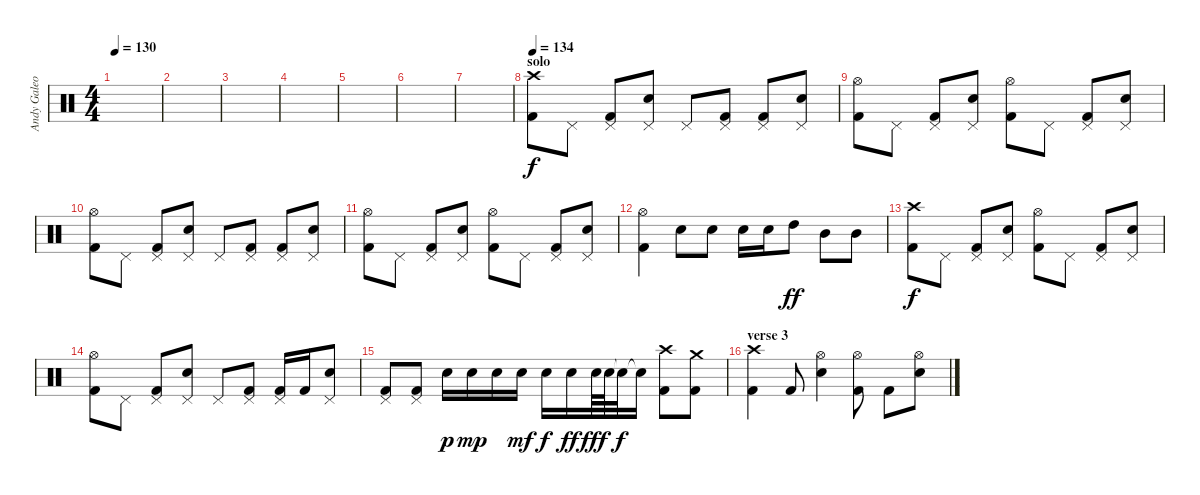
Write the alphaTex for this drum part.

\track ("Andy Galeon" "Andy Galeo") {instrument percussion}
\staff {score}
\articulation defaults
\ts (4 4)
\tempo 130
\clef neutral
\ks c
|
|
|
|
|
|
|
\section ("" "solo")
\tempo 134
("Kick (hit) 2" "Crash high (hit)").8 "Pedal Hi-Hat (hit)".8 ("Kick (hit) 2" "Pedal Hi-Hat (hit)").8 ("Pedal Hi-Hat (hit)" "Snare (hit) 2").8 "Pedal Hi-Hat (hit)".8 ("Kick (hit) 2" "Pedal Hi-Hat (hit)").8 ("Kick (hit) 2" "Pedal Hi-Hat (hit)").8 ("Pedal Hi-Hat (hit)" "Snare (hit) 2").8 |
("Kick (hit) 2" "Hi-Hat (open)").8 "Pedal Hi-Hat (hit)".8 ("Kick (hit) 2" "Pedal Hi-Hat (hit)").8 ("Pedal Hi-Hat (hit)" "Snare (hit) 2").8 ("Kick (hit) 2" "Hi-Hat (open)").8 "Pedal Hi-Hat (hit)".8 ("Kick (hit) 2" "Pedal Hi-Hat (hit)").8 ("Pedal Hi-Hat (hit)" "Snare (hit) 2").8 |
("Kick (hit) 2" "Hi-Hat (open)").8 "Pedal Hi-Hat (hit)".8 ("Kick (hit) 2" "Pedal Hi-Hat (hit)").8 ("Pedal Hi-Hat (hit)" "Snare (hit) 2").8 "Pedal Hi-Hat (hit)".8 ("Kick (hit) 2" "Pedal Hi-Hat (hit)").8 ("Kick (hit) 2" "Pedal Hi-Hat (hit)").8 ("Pedal Hi-Hat (hit)" "Snare (hit) 2").8 |
("Kick (hit) 2" "Hi-Hat (open)").8 "Pedal Hi-Hat (hit)".8 ("Kick (hit) 2" "Pedal Hi-Hat (hit)").8 ("Pedal Hi-Hat (hit)" "Snare (hit) 2").8 ("Kick (hit) 2" "Hi-Hat (open)").8 "Pedal Hi-Hat (hit)".8 ("Kick (hit) 2" "Pedal Hi-Hat (hit)").8 ("Pedal Hi-Hat (hit)" "Snare (hit) 2").8 |
("Kick (hit) 2" "Hi-Hat (open)").4 "Snare (hit) 2".8 "Snare (hit) 2".8 "Snare (hit) 2".16 "Snare (hit) 2".16 "High Tom (hit)".8{dy ff} "Mid Tom (hit)".8 "Mid Tom (hit)".8 |
("Kick (hit) 2" "Crash high (hit)").8{dy f} "Pedal Hi-Hat (hit)".8 ("Kick (hit) 2" "Pedal Hi-Hat (hit)").8 ("Pedal Hi-Hat (hit)" "Snare (hit) 2").8 ("Kick (hit) 2" "Hi-Hat (open)").8 "Pedal Hi-Hat (hit)".8 ("Kick (hit) 2" "Pedal Hi-Hat (hit)").8 ("Pedal Hi-Hat (hit)" "Snare (hit) 2").8 |
("Kick (hit) 2" "Hi-Hat (open)").8 "Pedal Hi-Hat (hit)".8 ("Kick (hit) 2" "Pedal Hi-Hat (hit)").8 ("Pedal Hi-Hat (hit)" "Snare (hit) 2").8 "Pedal Hi-Hat (hit)".8 ("Kick (hit) 2" "Pedal Hi-Hat (hit)").8 ("Kick (hit) 2" "Pedal Hi-Hat (hit)").16 "Kick (hit) 2".16 ("Pedal Hi-Hat (hit)" "Snare (hit) 2").8 |
("Kick (hit) 2" "Pedal Hi-Hat (hit)").8 ("Kick (hit) 2" "Pedal Hi-Hat (hit)").8 "Snare (hit) 2".16{dy p} "Snare (hit) 2".16{dy mp} "Snare (hit) 2".16 "Snare (hit) 2".16{dy mf} "Snare (hit) 2".16{dy f} "Snare (hit) 2".16{dy ff} "Snare (hit) 2".64{dy fff} "Snare (hit) 2".64 "Snare (hit)"{t}.32{dy f} "Snare (hit)"{t}.16 ("Kick (hit) 2" "Crash high (hit)").8 ("Kick (hit) 2" "Crash medium (hit)").8 |
\section ("" "verse 3")
("Kick (hit) 2" "Crash high (hit)").4 "Kick (hit) 2".8 ("Hi-Hat (open)" "Snare (hit) 2").4 ("Kick (hit) 2" "Hi-Hat (open)").8 "Kick (hit) 2".8 ("Hi-Hat (open)" "Snare (hit) 2").8
